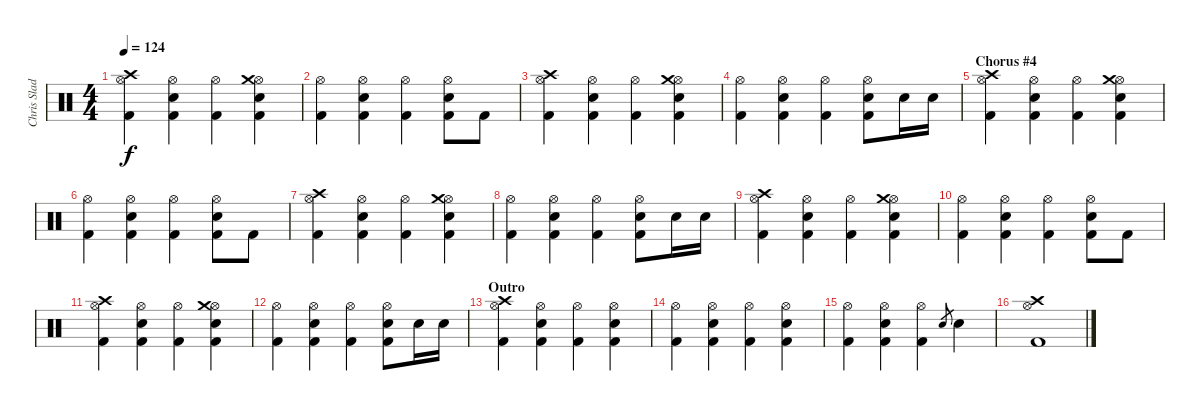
\track ("Chris Slade" "Chris Slad") {instrument percussion}
\staff {score}
\articulation defaults
\ts (4 4)
\tempo 124
\clef neutral
\ks c
("Hi-Hat (open)" "Crash high (hit)" "Kick (hit) 2").4{dy f} ("Hi-Hat (open)" "Snare (hit) 2" "Kick (hit) 2").4 ("Hi-Hat (open)" "Kick (hit) 2").4 ("Hi-Hat (open)" "Crash medium (hit)" "Snare (hit) 2" "Kick (hit) 2").4 |
("Hi-Hat (open)" "Kick (hit) 2").4 ("Hi-Hat (open)" "Snare (hit) 2" "Kick (hit) 2").4 ("Hi-Hat (open)" "Kick (hit) 2").4 ("Hi-Hat (open)" "Snare (hit) 2" "Kick (hit) 2").8 "Kick (hit) 2".8 |
("Hi-Hat (open)" "Crash high (hit)" "Kick (hit) 2").4 ("Hi-Hat (open)" "Snare (hit) 2" "Kick (hit) 2").4 ("Hi-Hat (open)" "Kick (hit) 2").4 ("Hi-Hat (open)" "Crash medium (hit)" "Snare (hit) 2" "Kick (hit) 2").4 |
("Hi-Hat (open)" "Kick (hit) 2").4 ("Hi-Hat (open)" "Snare (hit) 2" "Kick (hit) 2").4 ("Hi-Hat (open)" "Kick (hit) 2").4 ("Hi-Hat (open)" "Snare (hit) 2" "Kick (hit) 2").8 "Snare (hit) 2".16 "Snare (hit) 2".16 |
\section ("" "Chorus #4")
("Hi-Hat (open)" "Crash high (hit)" "Kick (hit) 2").4 ("Hi-Hat (open)" "Snare (hit) 2" "Kick (hit) 2").4 ("Hi-Hat (open)" "Kick (hit) 2").4 ("Hi-Hat (open)" "Crash medium (hit)" "Snare (hit) 2" "Kick (hit) 2").4 |
("Hi-Hat (open)" "Kick (hit) 2").4 ("Hi-Hat (open)" "Snare (hit) 2" "Kick (hit) 2").4 ("Hi-Hat (open)" "Kick (hit) 2").4 ("Hi-Hat (open)" "Snare (hit) 2" "Kick (hit) 2").8 "Kick (hit) 2".8 |
("Hi-Hat (open)" "Crash high (hit)" "Kick (hit) 2").4 ("Hi-Hat (open)" "Snare (hit) 2" "Kick (hit) 2").4 ("Hi-Hat (open)" "Kick (hit) 2").4 ("Hi-Hat (open)" "Crash medium (hit)" "Snare (hit) 2" "Kick (hit) 2").4 |
("Hi-Hat (open)" "Kick (hit) 2").4 ("Hi-Hat (open)" "Snare (hit) 2" "Kick (hit) 2").4 ("Hi-Hat (open)" "Kick (hit) 2").4 ("Hi-Hat (open)" "Snare (hit) 2" "Kick (hit) 2").8 "Snare (hit) 2".16 "Snare (hit) 2".16 |
("Hi-Hat (open)" "Crash high (hit)" "Kick (hit) 2").4 ("Hi-Hat (open)" "Snare (hit) 2" "Kick (hit) 2").4 ("Hi-Hat (open)" "Kick (hit) 2").4 ("Hi-Hat (open)" "Crash medium (hit)" "Snare (hit) 2" "Kick (hit) 2").4 |
("Hi-Hat (open)" "Kick (hit) 2").4 ("Hi-Hat (open)" "Snare (hit) 2" "Kick (hit) 2").4 ("Hi-Hat (open)" "Kick (hit) 2").4 ("Hi-Hat (open)" "Snare (hit) 2" "Kick (hit) 2").8 "Kick (hit) 2".8 |
("Hi-Hat (open)" "Crash high (hit)" "Kick (hit) 2").4 ("Hi-Hat (open)" "Snare (hit) 2" "Kick (hit) 2").4 ("Hi-Hat (open)" "Kick (hit) 2").4 ("Hi-Hat (open)" "Crash medium (hit)" "Snare (hit) 2" "Kick (hit) 2").4 |
("Hi-Hat (open)" "Kick (hit) 2").4 ("Hi-Hat (open)" "Snare (hit) 2" "Kick (hit) 2").4 ("Hi-Hat (open)" "Kick (hit) 2").4 ("Hi-Hat (open)" "Snare (hit) 2" "Kick (hit) 2").8 "Snare (hit) 2".16 "Snare (hit) 2".16 |
\section ("" "Outro")
("Hi-Hat (open)" "Crash high (hit)" "Kick (hit) 2").4 ("Hi-Hat (open)" "Snare (hit) 2" "Kick (hit) 2").4 ("Hi-Hat (open)" "Kick (hit) 2").4 ("Hi-Hat (open)" "Snare (hit) 2" "Kick (hit) 2").4 |
("Hi-Hat (open)" "Kick (hit) 2").4 ("Hi-Hat (open)" "Snare (hit) 2" "Kick (hit) 2").4 ("Hi-Hat (open)" "Kick (hit) 2").4 ("Hi-Hat (open)" "Snare (hit) 2" "Kick (hit) 2").4 |
("Hi-Hat (open)" "Kick (hit) 2").4 ("Hi-Hat (open)" "Snare (hit) 2" "Kick (hit) 2").4 ("Hi-Hat (open)" "Kick (hit) 2").4 "Snare (hit) 2".8{gr} "Snare (hit) 2".4 |
("Hi-Hat (open)" "Crash high (hit)" "Kick (hit) 2").1
